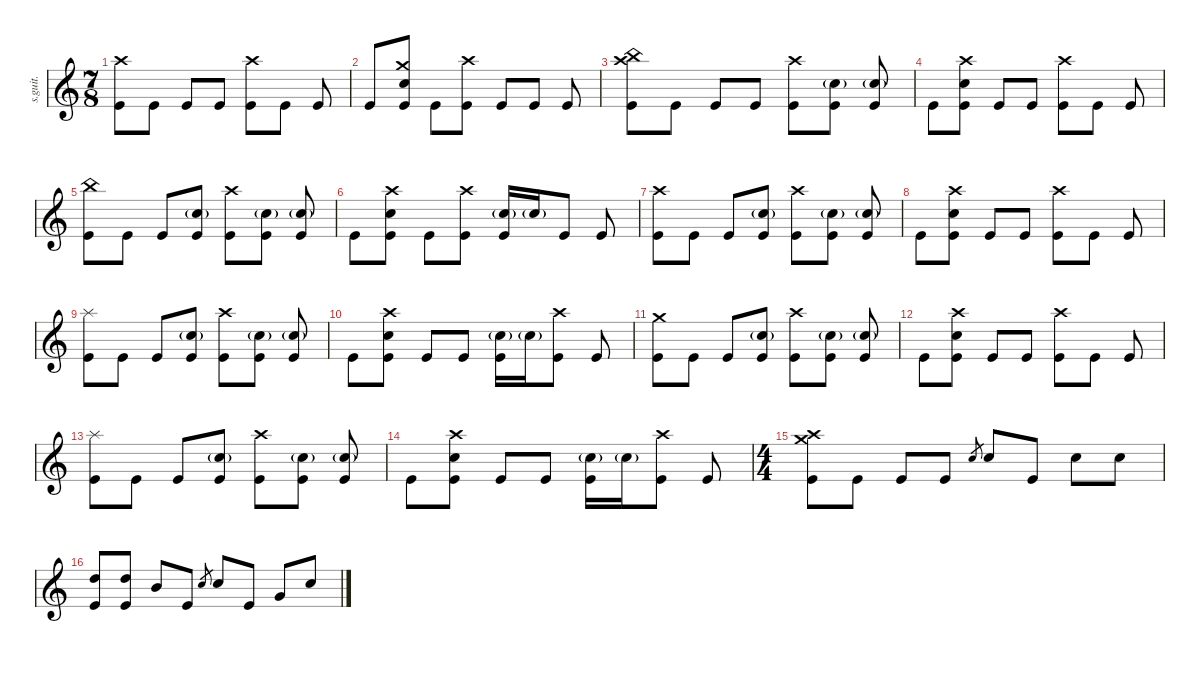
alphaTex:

\defaultSystemsLayout 4
\hideDynamics
\bracketExtendMode nobrackets
\track ("Matt Halpern" "s.guit.") {instrument percussion}
\staff {score}
\articulation defaults
\ts (7 8)
\beaming (8 2 2 2 2)
\tempo (213 hide)
\clef g2
\ks c
("Crash high (hit)" "Kick (hit)").8{lyrics (0 "") lyrics (1 "") lyrics (2 "") lyrics (3 "") lyrics (4 "") dy mf} "Kick (hit)".8{lyrics (0 "") lyrics (1 "") lyrics (2 "") lyrics (3 "") lyrics (4 "")} "Kick (hit)".8{lyrics (0 "") lyrics (1 "") lyrics (2 "") lyrics (3 "") lyrics (4 "")} "Kick (hit)".8{lyrics (0 "") lyrics (1 "") lyrics (2 "") lyrics (3 "") lyrics (4 "")} ("Crash high (hit)" "Kick (hit)").8{lyrics (0 "") lyrics (1 "") lyrics (2 "") lyrics (3 "") lyrics (4 "")} "Kick (hit)".8{lyrics (0 "") lyrics (1 "") lyrics (2 "") lyrics (3 "") lyrics (4 "")} "Kick (hit)".8{lyrics (0 "") lyrics (1 "") lyrics (2 "") lyrics (3 "") lyrics (4 "")} |
"Kick (hit)".8{lyrics (0 "") lyrics (1 "") lyrics (2 "") lyrics (3 "") lyrics (4 "")} ("Crash medium (hit)" "Snare (hit) 2" "Kick (hit)").8{lyrics (0 "") lyrics (1 "") lyrics (2 "") lyrics (3 "") lyrics (4 "")} "Kick (hit)".8{lyrics (0 "") lyrics (1 "") lyrics (2 "") lyrics (3 "") lyrics (4 "")} ("Crash high (hit)" "Kick (hit)").8{lyrics (0 "") lyrics (1 "") lyrics (2 "") lyrics (3 "") lyrics (4 "")} "Kick (hit)".8{lyrics (0 "") lyrics (1 "") lyrics (2 "") lyrics (3 "") lyrics (4 "")} "Kick (hit)".8{lyrics (0 "") lyrics (1 "") lyrics (2 "") lyrics (3 "") lyrics (4 "")} "Kick (hit)".8{lyrics (0 "") lyrics (1 "") lyrics (2 "") lyrics (3 "") lyrics (4 "")} |
("Crash high (hit)" "China (hit)" "Kick (hit)").8{lyrics (0 "") lyrics (1 "") lyrics (2 "") lyrics (3 "") lyrics (4 "")} "Kick (hit)".8{lyrics (0 "") lyrics (1 "") lyrics (2 "") lyrics (3 "") lyrics (4 "")} "Kick (hit)".8{lyrics (0 "") lyrics (1 "") lyrics (2 "") lyrics (3 "") lyrics (4 "")} "Kick (hit)".8{lyrics (0 "") lyrics (1 "") lyrics (2 "") lyrics (3 "") lyrics (4 "")} ("Crash high (hit)" "Kick (hit)").8{lyrics (0 "") lyrics (1 "") lyrics (2 "") lyrics (3 "") lyrics (4 "")} ("Snare (hit) 2"{g} "Kick (hit)").8{lyrics (0 "") lyrics (1 "") lyrics (2 "") lyrics (3 "") lyrics (4 "")} ("Snare (hit) 2"{g} "Kick (hit)").8{lyrics (0 "") lyrics (1 "") lyrics (2 "") lyrics (3 "") lyrics (4 "")} |
"Kick (hit)".8{lyrics (0 "") lyrics (1 "") lyrics (2 "") lyrics (3 "") lyrics (4 "")} ("Crash high (hit)" "Snare (hit) 2" "Kick (hit)").8{lyrics (0 "") lyrics (1 "") lyrics (2 "") lyrics (3 "") lyrics (4 "")} "Kick (hit)".8{lyrics (0 "") lyrics (1 "") lyrics (2 "") lyrics (3 "") lyrics (4 "")} "Kick (hit)".8{lyrics (0 "") lyrics (1 "") lyrics (2 "") lyrics (3 "") lyrics (4 "")} ("Crash high (hit)" "Kick (hit)").8{lyrics (0 "") lyrics (1 "") lyrics (2 "") lyrics (3 "") lyrics (4 "")} "Kick (hit)".8{lyrics (0 "") lyrics (1 "") lyrics (2 "") lyrics (3 "") lyrics (4 "")} "Kick (hit)".8{lyrics (0 "") lyrics (1 "") lyrics (2 "") lyrics (3 "") lyrics (4 "")} |
("China (hit)" "Kick (hit)").8{lyrics (0 "") lyrics (1 "") lyrics (2 "") lyrics (3 "") lyrics (4 "")} "Kick (hit)".8{lyrics (0 "") lyrics (1 "") lyrics (2 "") lyrics (3 "") lyrics (4 "")} "Kick (hit)".8{lyrics (0 "") lyrics (1 "") lyrics (2 "") lyrics (3 "") lyrics (4 "")} ("Snare (hit) 2"{g} "Kick (hit)").8{lyrics (0 "") lyrics (1 "") lyrics (2 "") lyrics (3 "") lyrics (4 "")} ("Crash high (hit)" "Kick (hit)").8{lyrics (0 "") lyrics (1 "") lyrics (2 "") lyrics (3 "") lyrics (4 "")} ("Snare (hit) 2"{g} "Kick (hit)").8{lyrics (0 "") lyrics (1 "") lyrics (2 "") lyrics (3 "") lyrics (4 "")} ("Snare (hit) 2"{g} "Kick (hit)").8{lyrics (0 "") lyrics (1 "") lyrics (2 "") lyrics (3 "") lyrics (4 "")} |
"Kick (hit)".8{lyrics (0 "") lyrics (1 "") lyrics (2 "") lyrics (3 "") lyrics (4 "")} ("Crash high (hit)" "Snare (hit) 2" "Kick (hit)").8{lyrics (0 "") lyrics (1 "") lyrics (2 "") lyrics (3 "") lyrics (4 "")} "Kick (hit)".8{lyrics (0 "") lyrics (1 "") lyrics (2 "") lyrics (3 "") lyrics (4 "")} ("Crash high (hit)" "Kick (hit)").8{lyrics (0 "") lyrics (1 "") lyrics (2 "") lyrics (3 "") lyrics (4 "")} ("Snare (hit) 2"{g} "Kick (hit)").16{lyrics (0 "") lyrics (1 "") lyrics (2 "") lyrics (3 "") lyrics (4 "")} "Snare (hit) 2"{g}.16{lyrics (0 "") lyrics (1 "") lyrics (2 "") lyrics (3 "") lyrics (4 "")} "Kick (hit)".8{lyrics (0 "") lyrics (1 "") lyrics (2 "") lyrics (3 "") lyrics (4 "")} "Kick (hit)".8{lyrics (0 "") lyrics (1 "") lyrics (2 "") lyrics (3 "") lyrics (4 "")} |
("Crash high (hit)" "Kick (hit)").8{lyrics (0 "") lyrics (1 "") lyrics (2 "") lyrics (3 "") lyrics (4 "")} "Kick (hit)".8{lyrics (0 "") lyrics (1 "") lyrics (2 "") lyrics (3 "") lyrics (4 "")} "Kick (hit)".8{lyrics (0 "") lyrics (1 "") lyrics (2 "") lyrics (3 "") lyrics (4 "")} ("Snare (hit) 2"{g} "Kick (hit)").8{lyrics (0 "") lyrics (1 "") lyrics (2 "") lyrics (3 "") lyrics (4 "")} ("Crash high (hit)" "Kick (hit)").8{lyrics (0 "") lyrics (1 "") lyrics (2 "") lyrics (3 "") lyrics (4 "")} ("Snare (hit) 2"{g} "Kick (hit)").8{lyrics (0 "") lyrics (1 "") lyrics (2 "") lyrics (3 "") lyrics (4 "")} ("Snare (hit) 2"{g} "Kick (hit)").8{lyrics (0 "") lyrics (1 "") lyrics (2 "") lyrics (3 "") lyrics (4 "")} |
"Kick (hit)".8{lyrics (0 "") lyrics (1 "") lyrics (2 "") lyrics (3 "") lyrics (4 "")} ("Crash high (hit)" "Snare (hit) 2" "Kick (hit)").8{lyrics (0 "") lyrics (1 "") lyrics (2 "") lyrics (3 "") lyrics (4 "")} "Kick (hit)".8{lyrics (0 "") lyrics (1 "") lyrics (2 "") lyrics (3 "") lyrics (4 "")} "Kick (hit)".8{lyrics (0 "") lyrics (1 "") lyrics (2 "") lyrics (3 "") lyrics (4 "")} ("Crash high (hit)" "Kick (hit)").8{lyrics (0 "") lyrics (1 "") lyrics (2 "") lyrics (3 "") lyrics (4 "")} "Kick (hit)".8{lyrics (0 "") lyrics (1 "") lyrics (2 "") lyrics (3 "") lyrics (4 "")} "Kick (hit)".8{lyrics (0 "") lyrics (1 "") lyrics (2 "") lyrics (3 "") lyrics (4 "")} |
("Splash (hit)" "Kick (hit)").8{lyrics (0 "") lyrics (1 "") lyrics (2 "") lyrics (3 "") lyrics (4 "")} "Kick (hit)".8{lyrics (0 "") lyrics (1 "") lyrics (2 "") lyrics (3 "") lyrics (4 "")} "Kick (hit)".8{lyrics (0 "") lyrics (1 "") lyrics (2 "") lyrics (3 "") lyrics (4 "")} ("Snare (hit) 2"{g} "Kick (hit)").8{lyrics (0 "") lyrics (1 "") lyrics (2 "") lyrics (3 "") lyrics (4 "")} ("Crash high (hit)" "Kick (hit)").8{lyrics (0 "") lyrics (1 "") lyrics (2 "") lyrics (3 "") lyrics (4 "")} ("Snare (hit) 2"{g} "Kick (hit)").8{lyrics (0 "") lyrics (1 "") lyrics (2 "") lyrics (3 "") lyrics (4 "")} ("Snare (hit) 2"{g} "Kick (hit)").8{lyrics (0 "") lyrics (1 "") lyrics (2 "") lyrics (3 "") lyrics (4 "")} |
"Kick (hit)".8{lyrics (0 "") lyrics (1 "") lyrics (2 "") lyrics (3 "") lyrics (4 "")} ("Crash high (hit)" "Snare (hit) 2" "Kick (hit)").8{lyrics (0 "") lyrics (1 "") lyrics (2 "") lyrics (3 "") lyrics (4 "")} "Kick (hit)".8{lyrics (0 "") lyrics (1 "") lyrics (2 "") lyrics (3 "") lyrics (4 "")} "Kick (hit)".8{lyrics (0 "") lyrics (1 "") lyrics (2 "") lyrics (3 "") lyrics (4 "")} ("Snare (hit) 2"{g} "Kick (hit)").16{lyrics (0 "") lyrics (1 "") lyrics (2 "") lyrics (3 "") lyrics (4 "")} "Snare (hit) 2"{g}.16{lyrics (0 "") lyrics (1 "") lyrics (2 "") lyrics (3 "") lyrics (4 "")} ("Crash high (hit)" "Kick (hit)").8{lyrics (0 "") lyrics (1 "") lyrics (2 "") lyrics (3 "") lyrics (4 "")} "Kick (hit)".8{lyrics (0 "") lyrics (1 "") lyrics (2 "") lyrics (3 "") lyrics (4 "")} |
("Crash medium (hit)" "Kick (hit)").8{lyrics (0 "") lyrics (1 "") lyrics (2 "") lyrics (3 "") lyrics (4 "")} "Kick (hit)".8{lyrics (0 "") lyrics (1 "") lyrics (2 "") lyrics (3 "") lyrics (4 "")} "Kick (hit)".8{lyrics (0 "") lyrics (1 "") lyrics (2 "") lyrics (3 "") lyrics (4 "")} ("Snare (hit) 2"{g} "Kick (hit)").8{lyrics (0 "") lyrics (1 "") lyrics (2 "") lyrics (3 "") lyrics (4 "")} ("Crash high (hit)" "Kick (hit)").8{lyrics (0 "") lyrics (1 "") lyrics (2 "") lyrics (3 "") lyrics (4 "")} ("Snare (hit) 2"{g} "Kick (hit)").8{lyrics (0 "") lyrics (1 "") lyrics (2 "") lyrics (3 "") lyrics (4 "")} ("Snare (hit) 2"{g} "Kick (hit)").8{lyrics (0 "") lyrics (1 "") lyrics (2 "") lyrics (3 "") lyrics (4 "")} |
"Kick (hit)".8{lyrics (0 "") lyrics (1 "") lyrics (2 "") lyrics (3 "") lyrics (4 "")} ("Crash high (hit)" "Snare (hit) 2" "Kick (hit)").8{lyrics (0 "") lyrics (1 "") lyrics (2 "") lyrics (3 "") lyrics (4 "")} "Kick (hit)".8{lyrics (0 "") lyrics (1 "") lyrics (2 "") lyrics (3 "") lyrics (4 "")} "Kick (hit)".8{lyrics (0 "") lyrics (1 "") lyrics (2 "") lyrics (3 "") lyrics (4 "")} ("Crash high (hit)" "Kick (hit)").8{lyrics (0 "") lyrics (1 "") lyrics (2 "") lyrics (3 "") lyrics (4 "")} "Kick (hit)".8{lyrics (0 "") lyrics (1 "") lyrics (2 "") lyrics (3 "") lyrics (4 "")} "Kick (hit)".8{lyrics (0 "") lyrics (1 "") lyrics (2 "") lyrics (3 "") lyrics (4 "")} |
("Splash (hit)" "Kick (hit)").8{lyrics (0 "") lyrics (1 "") lyrics (2 "") lyrics (3 "") lyrics (4 "")} "Kick (hit)".8{lyrics (0 "") lyrics (1 "") lyrics (2 "") lyrics (3 "") lyrics (4 "")} "Kick (hit)".8{lyrics (0 "") lyrics (1 "") lyrics (2 "") lyrics (3 "") lyrics (4 "")} ("Snare (hit) 2"{g} "Kick (hit)").8{lyrics (0 "") lyrics (1 "") lyrics (2 "") lyrics (3 "") lyrics (4 "")} ("Crash high (hit)" "Kick (hit)").8{lyrics (0 "") lyrics (1 "") lyrics (2 "") lyrics (3 "") lyrics (4 "")} ("Snare (hit) 2"{g} "Kick (hit)").8{lyrics (0 "") lyrics (1 "") lyrics (2 "") lyrics (3 "") lyrics (4 "")} ("Snare (hit) 2"{g} "Kick (hit)").8{lyrics (0 "") lyrics (1 "") lyrics (2 "") lyrics (3 "") lyrics (4 "")} |
"Kick (hit)".8{lyrics (0 "") lyrics (1 "") lyrics (2 "") lyrics (3 "") lyrics (4 "")} ("Crash high (hit)" "Snare (hit) 2" "Kick (hit)").8{lyrics (0 "") lyrics (1 "") lyrics (2 "") lyrics (3 "") lyrics (4 "")} "Kick (hit)".8{lyrics (0 "") lyrics (1 "") lyrics (2 "") lyrics (3 "") lyrics (4 "")} "Kick (hit)".8{lyrics (0 "") lyrics (1 "") lyrics (2 "") lyrics (3 "") lyrics (4 "")} ("Snare (hit) 2"{g} "Kick (hit)").16{lyrics (0 "") lyrics (1 "") lyrics (2 "") lyrics (3 "") lyrics (4 "")} "Snare (hit) 2"{g}.16{lyrics (0 "") lyrics (1 "") lyrics (2 "") lyrics (3 "") lyrics (4 "")} ("Crash high (hit)" "Kick (hit)").8{lyrics (0 "") lyrics (1 "") lyrics (2 "") lyrics (3 "") lyrics (4 "")} "Kick (hit)".8{lyrics (0 "") lyrics (1 "") lyrics (2 "") lyrics (3 "") lyrics (4 "")} |
\ts (4 4)
\beaming (8 2 2 2 2)
("Crash medium (hit)" "Crash high (hit)" "Kick (hit)").8{lyrics (0 "") lyrics (1 "") lyrics (2 "") lyrics (3 "") lyrics (4 "")} "Kick (hit)".8{lyrics (0 "") lyrics (1 "") lyrics (2 "") lyrics (3 "") lyrics (4 "")} "Kick (hit)".8{lyrics (0 "") lyrics (1 "") lyrics (2 "") lyrics (3 "") lyrics (4 "")} "Kick (hit)".8{lyrics (0 "") lyrics (1 "") lyrics (2 "") lyrics (3 "") lyrics (4 "")} "Snare (hit) 2".8{lyrics (0 "") lyrics (1 "") lyrics (2 "") lyrics (3 "") lyrics (4 "") gr} "Snare (hit) 2".8{lyrics (0 "") lyrics (1 "") lyrics (2 "") lyrics (3 "") lyrics (4 "")} "Kick (hit)".8{lyrics (0 "") lyrics (1 "") lyrics (2 "") lyrics (3 "") lyrics (4 "")} "Snare (hit) 2".8{lyrics (0 "") lyrics (1 "") lyrics (2 "") lyrics (3 "") lyrics (4 "")} "Snare (hit) 2".8{lyrics (0 "") lyrics (1 "") lyrics (2 "") lyrics (3 "") lyrics (4 "")} |
("High Tom (hit)" "Kick (hit)").8{lyrics (0 "") lyrics (1 "") lyrics (2 "") lyrics (3 "") lyrics (4 "")} ("High Tom (hit)" "Kick (hit)").8{lyrics (0 "") lyrics (1 "") lyrics (2 "") lyrics (3 "") lyrics (4 "")} "Mid Tom (hit)".8{lyrics (0 "") lyrics (1 "") lyrics (2 "") lyrics (3 "") lyrics (4 "")} "Kick (hit)".8{lyrics (0 "") lyrics (1 "") lyrics (2 "") lyrics (3 "") lyrics (4 "")} "Snare (hit) 2".8{lyrics (0 "") lyrics (1 "") lyrics (2 "") lyrics (3 "") lyrics (4 "") gr} "Snare (hit) 2".8{lyrics (0 "") lyrics (1 "") lyrics (2 "") lyrics (3 "") lyrics (4 "")} "Kick (hit)".8{lyrics (0 "") lyrics (1 "") lyrics (2 "") lyrics (3 "") lyrics (4 "")} "Very Low Tom (hit)".8{lyrics (0 "") lyrics (1 "") lyrics (2 "") lyrics (3 "") lyrics (4 "")} "Snare (hit) 2".8{lyrics (0 "") lyrics (1 "") lyrics (2 "") lyrics (3 "") lyrics (4 "")}
